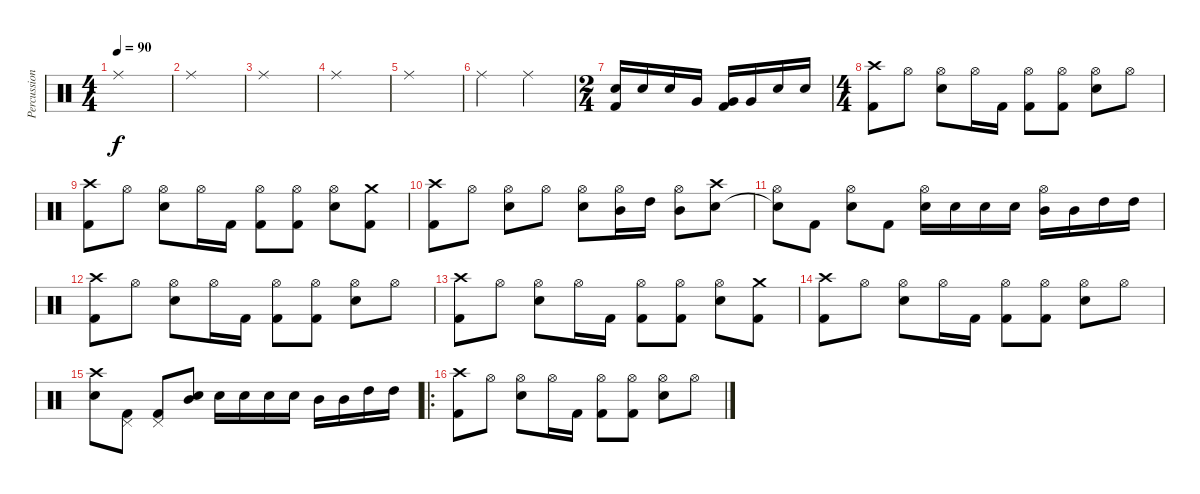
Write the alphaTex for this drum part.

\track ("Percussion" "Percussion") {instrument percussion}
\staff {score}
\articulation defaults
\ts (4 4)
\tempo 90
\clef neutral
\ks c "Ride (middle)".1{dy f}
|
"Ride (middle)".1 |
"Ride (middle)".1 |
"Ride (middle)".1 |
"Ride (middle)".1 |
"Ride (middle)".2 "Ride (middle)".2 |
\ts (2 4)
("Snare (hit) 2" "Kick (hit) 2").16 "Snare (hit) 2".16 "Snare (hit) 2".16 "Very Low Tom (hit)".16 ("Very Low Tom (hit)" "Kick (hit) 2").16 "Very Low Tom (hit)".16 "Snare (hit) 2".16 "Snare (hit) 2".16 |
\ts (4 4)
("Crash high (hit)" "Kick (hit) 2").8 "Hi-Hat (open)".8 ("Hi-Hat (open)" "Snare (hit) 2").8 "Hi-Hat (open)".16 "Kick (hit) 2".16 ("Hi-Hat (open)" "Kick (hit) 2").8 ("Hi-Hat (open)" "Kick (hit) 2").8 ("Hi-Hat (open)" "Snare (hit) 2").8 "Hi-Hat (open)".8 |
("Crash high (hit)" "Kick (hit) 2").8 "Hi-Hat (open)".8 ("Hi-Hat (open)" "Snare (hit) 2").8 "Hi-Hat (open)".16 "Kick (hit) 2".16 ("Hi-Hat (open)" "Kick (hit) 2").8 ("Hi-Hat (open)" "Kick (hit) 2").8 ("Hi-Hat (open)" "Snare (hit) 2").8 ("Crash medium (hit)" "Kick (hit) 2").8 |
("Crash high (hit)" "Kick (hit) 2").8 "Hi-Hat (open)".8 ("Hi-Hat (open)" "Snare (hit) 2").8 "Hi-Hat (open)".8 ("Hi-Hat (open)" "Snare (hit) 2").8 ("Hi-Hat (open)" "Mid Tom (hit)").16 "High Tom (hit)".16 ("Hi-Hat (open)" "Mid Tom (hit)").8 ("Crash high (hit)" "Snare (hit) 2").8 |
("Hi-Hat (open)" "Snare (hit)"{t}).8 "Kick (hit) 2".8 ("Hi-Hat (open)" "Snare (hit) 2").8 "Kick (hit) 2".8 ("Snare (hit) 2" "Hi-Hat (open)").16 "Snare (hit) 2".16 "Snare (hit) 2".16 "Snare (hit) 2".16 ("Mid Tom (hit)" "Hi-Hat (open)").16 "Mid Tom (hit)".16 "High Tom (hit)".16 "High Tom (hit)".16 |
("Crash high (hit)" "Kick (hit) 2").8 "Hi-Hat (open)".8 ("Hi-Hat (open)" "Snare (hit) 2").8 "Hi-Hat (open)".16 "Kick (hit) 2".16 ("Hi-Hat (open)" "Kick (hit) 2").8 ("Hi-Hat (open)" "Kick (hit) 2").8 ("Hi-Hat (open)" "Snare (hit) 2").8 "Hi-Hat (open)".8 |
("Crash high (hit)" "Kick (hit) 2").8 "Hi-Hat (open)".8 ("Hi-Hat (open)" "Snare (hit) 2").8 "Hi-Hat (open)".16 "Kick (hit) 2".16 ("Hi-Hat (open)" "Kick (hit) 2").8 ("Hi-Hat (open)" "Kick (hit) 2").8 ("Hi-Hat (open)" "Snare (hit) 2").8 ("Crash medium (hit)" "Kick (hit) 2").8 |
("Crash high (hit)" "Kick (hit) 2").8 "Hi-Hat (open)".8 ("Hi-Hat (open)" "Snare (hit) 2").8 "Hi-Hat (open)".16 "Kick (hit) 2".16 ("Hi-Hat (open)" "Kick (hit) 2").8 ("Hi-Hat (open)" "Kick (hit) 2").8 ("Hi-Hat (open)" "Snare (hit) 2").8 "Hi-Hat (open)".8 |
("Crash high (hit)" "Snare (hit) 2").8 ("Pedal Hi-Hat (hit)" "Kick (hit) 2").8 ("Pedal Hi-Hat (hit)" "Kick (hit) 2").8 ("Mid Tom (hit)" "Snare (hit) 2").8 "Snare (hit) 2".16 "Snare (hit) 2".16 "Snare (hit) 2".16 "Snare (hit) 2".16 "Mid Tom (hit)".16 "Mid Tom (hit)".16 "High Tom (hit)".16 "High Tom (hit)".16 |
\ro
("Crash high (hit)" "Kick (hit) 2").8 "Hi-Hat (open)".8 ("Hi-Hat (open)" "Snare (hit) 2").8 "Hi-Hat (open)".16 "Kick (hit) 2".16 ("Hi-Hat (open)" "Kick (hit) 2").8 ("Hi-Hat (open)" "Kick (hit) 2").8 ("Hi-Hat (open)" "Snare (hit) 2").8 "Hi-Hat (open)".8
